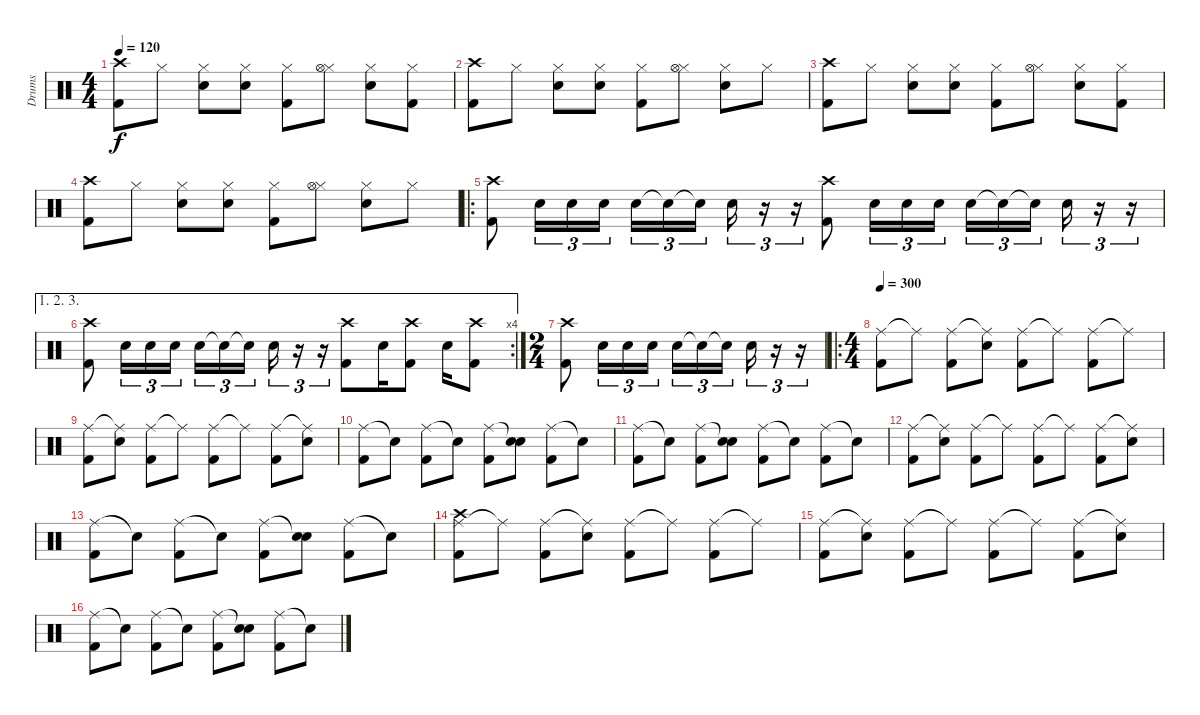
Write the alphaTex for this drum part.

\track ("Drums" "Drums") {instrument percussion}
\staff {score}
\articulation defaults
\ts (4 4)
\tempo 120
\clef neutral
\ks c
("Crash high (hit)" "Kick (hit) 2").8{dy f} "Hi-Hat (closed)".8 ("Hi-Hat (closed)" "Snare (hit) 2").8 ("Hi-Hat (closed)" "Snare (hit) 2").8 ("Hi-Hat (closed)" "Kick (hit) 2").8 ("Hi-Hat (closed)" "Hi-Hat (open)").8 ("Hi-Hat (closed)" "Snare (hit) 2").8 ("Hi-Hat (closed)" "Kick (hit) 2").8 |
("Crash high (hit)" "Kick (hit) 2").8 "Hi-Hat (closed)".8 ("Hi-Hat (closed)" "Snare (hit) 2").8 ("Hi-Hat (closed)" "Snare (hit) 2").8 ("Hi-Hat (closed)" "Kick (hit) 2").8 ("Hi-Hat (closed)" "Hi-Hat (open)").8 ("Hi-Hat (closed)" "Snare (hit) 2").8 "Hi-Hat (closed)".8 |
("Crash high (hit)" "Kick (hit) 2").8 "Hi-Hat (closed)".8 ("Hi-Hat (closed)" "Snare (hit) 2").8 ("Hi-Hat (closed)" "Snare (hit) 2").8 ("Hi-Hat (closed)" "Kick (hit) 2").8 ("Hi-Hat (closed)" "Hi-Hat (open)").8 ("Hi-Hat (closed)" "Snare (hit) 2").8 ("Hi-Hat (closed)" "Kick (hit) 2").8 |
("Crash high (hit)" "Kick (hit) 2").8 "Hi-Hat (closed)".8 ("Hi-Hat (closed)" "Snare (hit) 2").8 ("Hi-Hat (closed)" "Snare (hit) 2").8 ("Hi-Hat (closed)" "Kick (hit) 2").8 ("Hi-Hat (closed)" "Hi-Hat (open)").8 ("Hi-Hat (closed)" "Snare (hit) 2").8 "Hi-Hat (closed)".8 |
\ro
("Crash high (hit)" "Kick (hit) 2").8 "Snare (hit) 2".16{tu (3 2)} "Snare (hit) 2".16{tu (3 2)} "Snare (hit) 2".16{tu (3 2)} "Snare (hit) 2".16{tu (3 2)} "Snare (hit)"{t}.16{tu (3 2)} "Snare (hit) 2"{t}.16{tu (3 2) beam splitsecondary} "Snare (hit) 2".16{tu (3 2)} r.16{tu (3 2)} r.16{tu (3 2)} ("Crash high (hit)" "Kick (hit) 2").8 "Snare (hit) 2".16{tu (3 2)} "Snare (hit) 2".16{tu (3 2)} "Snare (hit) 2".16{tu (3 2)} "Snare (hit) 2".16{tu (3 2)} "Snare (hit)"{t}.16{tu (3 2)} "Snare (hit)"{t}.16{tu (3 2) beam splitsecondary} "Snare (hit) 2".16{tu (3 2)} r.16{tu (3 2)} r.16{tu (3 2)} |
\ae (1 2 3)
\rc 4
("Crash high (hit)" "Kick (hit) 2").8 "Snare (hit) 2".16{tu (3 2)} "Snare (hit) 2".16{tu (3 2)} "Snare (hit) 2".16{tu (3 2)} "Snare (hit) 2".16{tu (3 2)} "Snare (hit)"{t}.16{tu (3 2)} "Snare (hit) 2"{t}.16{tu (3 2) beam splitsecondary} "Snare (hit) 2".16{tu (3 2)} r.16{tu (3 2)} r.16{tu (3 2)} ("Crash high (hit)" "Kick (hit) 2").8 "Snare (hit) 2".16 ("Crash high (hit)" "Kick (hit) 2").8 "Snare (hit) 2".16 ("Crash high (hit)" "Kick (hit) 2").8 |
\ts (2 4)
("Crash high (hit)" "Kick (hit) 2").8 "Snare (hit) 2".16{tu (3 2)} "Snare (hit) 2".16{tu (3 2)} "Snare (hit) 2".16{tu (3 2)} "Snare (hit) 2".16{tu (3 2)} "Snare (hit)"{t}.16{tu (3 2)} "Snare (hit) 2"{t}.16{tu (3 2) beam splitsecondary} "Snare (hit) 2".16{tu (3 2)} r.16{tu (3 2)} r.16{tu (3 2)} |
\ro
\ts (4 4)
\tempo 300
("Ride (middle)" "Kick (hit) 2").8 "Ride (middle)"{t}.8 ("Ride (middle)" "Kick (hit) 2").8 ("Ride (middle)"{t} "Snare (hit) 2").8 ("Ride (middle)" "Kick (hit) 2").8 "Ride (middle)"{t}.8 ("Ride (middle)" "Kick (hit) 2").8 "Ride (middle)"{t}.8 |
("Ride (middle)" "Kick (hit) 2").8 ("Ride (middle)"{t} "Snare (hit) 2").8 ("Ride (middle)" "Kick (hit) 2").8 "Ride (middle)"{t}.8 ("Ride (middle)" "Kick (hit) 2").8 "Ride (middle)"{t}.8 ("Ride (middle)" "Kick (hit) 2").8 ("Ride (middle)"{t} "Snare (hit) 2").8 |
("Ride (middle)" "Kick (hit) 2").8 "Snare (hit)"{t}.8 ("Ride (middle)" "Kick (hit) 2").8 "Snare (hit)"{t}.8 ("Ride (middle)" "Kick (hit) 2").8 ("Snare (hit)"{t} "Snare (hit) 2").8 ("Ride (middle)" "Kick (hit) 2").8 "Snare (hit)"{t}.8 |
("Ride (middle)" "Kick (hit) 2").8 "Snare (hit)"{t}.8 ("Ride (middle)" "Kick (hit) 2").8 ("Snare (hit)"{t} "Snare (hit) 2").8 ("Ride (middle)" "Kick (hit) 2").8 "Snare (hit)"{t}.8 ("Ride (middle)" "Kick (hit) 2").8 "Snare (hit)"{t}.8 |
("Ride (middle)" "Kick (hit) 2").8 ("Ride (middle)"{t} "Snare (hit) 2").8 ("Ride (middle)" "Kick (hit) 2").8 "Ride (middle)"{t}.8 ("Ride (middle)" "Kick (hit) 2").8 "Ride (middle)"{t}.8 ("Ride (middle)" "Kick (hit) 2").8 ("Ride (middle)"{t} "Snare (hit) 2").8 |
("Ride (middle)" "Kick (hit) 2").8 "Snare (hit)"{t}.8 ("Ride (middle)" "Kick (hit) 2").8 "Snare (hit)"{t}.8 ("Ride (middle)" "Kick (hit) 2").8 ("Snare (hit)"{t} "Snare (hit) 2").8 ("Ride (middle)" "Kick (hit) 2").8 "Snare (hit)"{t}.8 |
("Ride (middle)" "Kick (hit) 2" "Crash high (hit)").8 "Ride (middle)"{t}.8 ("Ride (middle)" "Kick (hit) 2").8 ("Ride (middle)"{t} "Snare (hit) 2").8 ("Ride (middle)" "Kick (hit) 2").8 "Ride (middle)"{t}.8 ("Ride (middle)" "Kick (hit) 2").8 "Ride (middle)"{t}.8 |
("Ride (middle)" "Kick (hit) 2").8 ("Ride (middle)"{t} "Snare (hit) 2").8 ("Ride (middle)" "Kick (hit) 2").8 "Ride (middle)"{t}.8 ("Ride (middle)" "Kick (hit) 2").8 "Ride (middle)"{t}.8 ("Ride (middle)" "Kick (hit) 2").8 ("Ride (middle)"{t} "Snare (hit) 2").8 |
("Ride (middle)" "Kick (hit) 2").8 "Snare (hit)"{t}.8 ("Ride (middle)" "Kick (hit) 2").8 "Snare (hit)"{t}.8 ("Ride (middle)" "Kick (hit) 2").8 ("Snare (hit)"{t} "Snare (hit) 2").8 ("Ride (middle)" "Kick (hit) 2").8 "Snare (hit)"{t}.8
